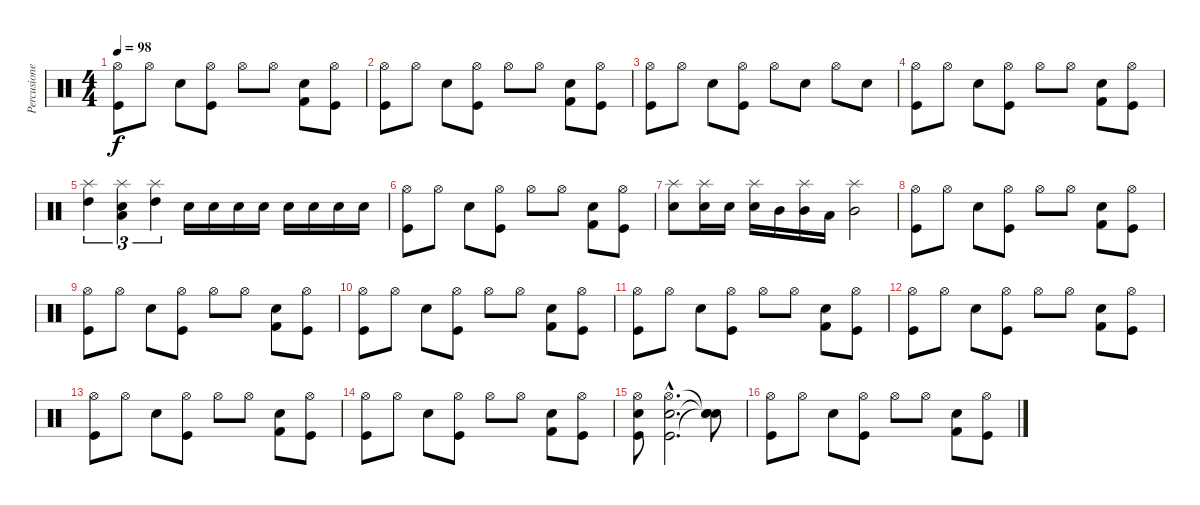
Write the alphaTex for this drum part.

\track ("Percusiones" "Percusione") {instrument percussion}
\staff {score}
\articulation defaults
\ts (4 4)
\tempo 98
\clef neutral
\ks c
("Hi-Hat (open)" "Kick (hit)").8{dy f} "Hi-Hat (open)".8 "Electric Snare (hit)".8 ("Hi-Hat (open)" "Kick (hit)").8 "Hi-Hat (open)".8 "Hi-Hat (open)".8 ("Electric Snare (hit)" "Kick (hit) 2").8 ("Hi-Hat (open)" "Kick (hit)").8 |
("Hi-Hat (open)" "Kick (hit)").8 "Hi-Hat (open)".8 "Electric Snare (hit)".8 ("Hi-Hat (open)" "Kick (hit)").8 "Hi-Hat (open)".8 "Hi-Hat (open)".8 ("Electric Snare (hit)" "Kick (hit) 2").8 ("Hi-Hat (open)" "Kick (hit)").8 |
("Hi-Hat (open)" "Kick (hit)").8 "Hi-Hat (open)".8 "Electric Snare (hit)".8 ("Hi-Hat (open)" "Kick (hit)").8 "Hi-Hat (open)".8 "Electric Snare (hit)".8 "Hi-Hat (open)".8 "Electric Snare (hit)".8 |
("Hi-Hat (open)" "Kick (hit)").8 "Hi-Hat (open)".8 "Electric Snare (hit)".8 ("Hi-Hat (open)" "Kick (hit)").8 "Hi-Hat (open)".8 "Hi-Hat (open)".8 ("Electric Snare (hit)" "Kick (hit) 2").8 ("Hi-Hat (open)" "Kick (hit)").8 |
("Splash (hit)" "High Tom (hit)").4{tu (3 2)} ("Splash (hit)" "Electric Snare (hit)" "Low Tom (hit)").4{tu (3 2)} ("Splash (hit)" "High Tom (hit)").4{tu (3 2)} "Electric Snare (hit)".16 "Electric Snare (hit)".16 "Electric Snare (hit)".16 "Electric Snare (hit)".16 "Electric Snare (hit)".16 "Electric Snare (hit)".16 "Electric Snare (hit)".16 "Electric Snare (hit)".16 |
("Hi-Hat (open)" "Kick (hit)").8 "Hi-Hat (open)".8 "Electric Snare (hit)".8 ("Hi-Hat (open)" "Kick (hit)").8 "Hi-Hat (open)".8 "Hi-Hat (open)".8 ("Electric Snare (hit)" "Kick (hit) 2").8 ("Hi-Hat (open)" "Kick (hit)").8 |
("Electric Snare (hit)" "Splash (hit)").8 ("Electric Snare (hit)" "Splash (hit)").16 "Electric Snare (hit)".16 ("Electric Snare (hit)" "Splash (hit)").16 "Mid Tom (hit)".16 ("Mid Tom (hit)" "Splash (hit)").16 "Low Tom (hit)".16 ("Mid Tom (hit)" "Splash (hit)").2 |
("Hi-Hat (open)" "Kick (hit)").8 "Hi-Hat (open)".8 "Electric Snare (hit)".8 ("Hi-Hat (open)" "Kick (hit)").8 "Hi-Hat (open)".8 "Hi-Hat (open)".8 ("Electric Snare (hit)" "Kick (hit) 2").8 ("Hi-Hat (open)" "Kick (hit)").8 |
("Hi-Hat (open)" "Kick (hit)").8 "Hi-Hat (open)".8 "Electric Snare (hit)".8 ("Hi-Hat (open)" "Kick (hit)").8 "Hi-Hat (open)".8 "Hi-Hat (open)".8 ("Electric Snare (hit)" "Kick (hit) 2").8 ("Hi-Hat (open)" "Kick (hit)").8 |
("Hi-Hat (open)" "Kick (hit)").8 "Hi-Hat (open)".8 "Electric Snare (hit)".8 ("Hi-Hat (open)" "Kick (hit)").8 "Hi-Hat (open)".8 "Hi-Hat (open)".8 ("Electric Snare (hit)" "Kick (hit) 2").8 ("Hi-Hat (open)" "Kick (hit)").8 |
("Hi-Hat (open)" "Kick (hit)").8 "Hi-Hat (open)".8 "Electric Snare (hit)".8 ("Hi-Hat (open)" "Kick (hit)").8 "Hi-Hat (open)".8 "Hi-Hat (open)".8 ("Electric Snare (hit)" "Kick (hit) 2").8 ("Hi-Hat (open)" "Kick (hit)").8 |
("Hi-Hat (open)" "Kick (hit)").8 "Hi-Hat (open)".8 "Electric Snare (hit)".8 ("Hi-Hat (open)" "Kick (hit)").8 "Hi-Hat (open)".8 "Hi-Hat (open)".8 ("Electric Snare (hit)" "Kick (hit) 2").8 ("Hi-Hat (open)" "Kick (hit)").8 |
("Hi-Hat (open)" "Kick (hit)").8 "Hi-Hat (open)".8 "Electric Snare (hit)".8 ("Hi-Hat (open)" "Kick (hit)").8 "Hi-Hat (open)".8 "Hi-Hat (open)".8 ("Electric Snare (hit)" "Kick (hit) 2").8 ("Hi-Hat (open)" "Kick (hit)").8 |
("Hi-Hat (open)" "Kick (hit)").8 "Hi-Hat (open)".8 "Electric Snare (hit)".8 ("Hi-Hat (open)" "Kick (hit)").8 "Hi-Hat (open)".8 "Hi-Hat (open)".8 ("Electric Snare (hit)" "Kick (hit) 2").8 ("Hi-Hat (open)" "Kick (hit)").8 |
("Electric Snare (hit)" "Hi-Hat (open)" "Kick (hit)").8 ("Electric Snare (hit)"{hac} "Hi-Hat (open)"{hac} "Kick (hit)"{hac}).2{d} ("Snare (hit)"{t} "Snare (hit)"{t} "Snare (hit)"{t}).8 |
("Hi-Hat (open)" "Kick (hit)").8 "Hi-Hat (open)".8 "Electric Snare (hit)".8 ("Hi-Hat (open)" "Kick (hit)").8 "Hi-Hat (open)".8 "Hi-Hat (open)".8 ("Electric Snare (hit)" "Kick (hit) 2").8 ("Hi-Hat (open)" "Kick (hit)").8
